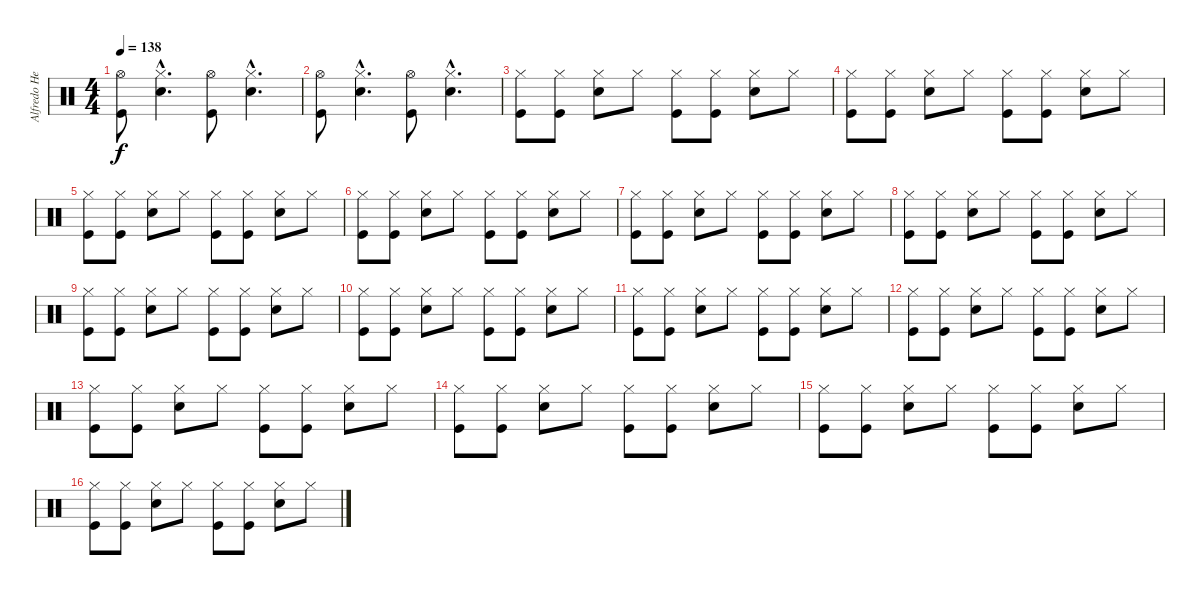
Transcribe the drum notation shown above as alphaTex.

\track ("Alfredo Hernandez" "Alfredo He") {instrument percussion}
\staff {score}
\articulation defaults
\ts (4 4)
\tempo 138
\clef neutral
\ks c
("Kick (hit)" "Hi-Hat (open)").8{dy f} ("Snare (hit) 2"{hac} "Hi-Hat (closed)"{hac}).4{d} ("Kick (hit)" "Hi-Hat (open)").8 ("Snare (hit) 2"{hac} "Hi-Hat (closed)"{hac}).4{d} |
("Kick (hit)" "Hi-Hat (open)").8 ("Snare (hit) 2"{hac} "Hi-Hat (closed)"{hac}).4{d} ("Kick (hit)" "Hi-Hat (open)").8 ("Snare (hit) 2"{hac} "Hi-Hat (closed)"{hac}).4{d} |
("Kick (hit)" "Hi-Hat (closed)").8 ("Kick (hit)" "Hi-Hat (closed)").8 ("Snare (hit) 2" "Hi-Hat (closed)").8 "Hi-Hat (closed)".8 ("Kick (hit)" "Hi-Hat (closed)").8 ("Kick (hit)" "Hi-Hat (closed)").8 ("Snare (hit) 2" "Hi-Hat (closed)").8 "Hi-Hat (closed)".8 |
("Kick (hit)" "Hi-Hat (closed)").8 ("Kick (hit)" "Hi-Hat (closed)").8 ("Snare (hit) 2" "Hi-Hat (closed)").8 "Hi-Hat (closed)".8 ("Kick (hit)" "Hi-Hat (closed)").8 ("Kick (hit)" "Hi-Hat (closed)").8 ("Snare (hit) 2" "Hi-Hat (closed)").8 "Hi-Hat (closed)".8 |
("Kick (hit)" "Hi-Hat (closed)").8 ("Kick (hit)" "Hi-Hat (closed)").8 ("Snare (hit) 2" "Hi-Hat (closed)").8 "Hi-Hat (closed)".8 ("Kick (hit)" "Hi-Hat (closed)").8 ("Kick (hit)" "Hi-Hat (closed)").8 ("Snare (hit) 2" "Hi-Hat (closed)").8 "Hi-Hat (closed)".8 |
("Kick (hit)" "Hi-Hat (closed)").8 ("Kick (hit)" "Hi-Hat (closed)").8 ("Snare (hit) 2" "Hi-Hat (closed)").8 "Hi-Hat (closed)".8 ("Kick (hit)" "Hi-Hat (closed)").8 ("Kick (hit)" "Hi-Hat (closed)").8 ("Snare (hit) 2" "Hi-Hat (closed)").8 "Hi-Hat (closed)".8 |
("Kick (hit)" "Hi-Hat (closed)").8 ("Kick (hit)" "Hi-Hat (closed)").8 ("Snare (hit) 2" "Hi-Hat (closed)").8 "Hi-Hat (closed)".8 ("Kick (hit)" "Hi-Hat (closed)").8 ("Kick (hit)" "Hi-Hat (closed)").8 ("Snare (hit) 2" "Hi-Hat (closed)").8 "Hi-Hat (closed)".8 |
("Kick (hit)" "Hi-Hat (closed)").8 ("Kick (hit)" "Hi-Hat (closed)").8 ("Snare (hit) 2" "Hi-Hat (closed)").8 "Hi-Hat (closed)".8 ("Kick (hit)" "Hi-Hat (closed)").8 ("Kick (hit)" "Hi-Hat (closed)").8 ("Snare (hit) 2" "Hi-Hat (closed)").8 "Hi-Hat (closed)".8 |
("Kick (hit)" "Hi-Hat (closed)").8 ("Kick (hit)" "Hi-Hat (closed)").8 ("Snare (hit) 2" "Hi-Hat (closed)").8 "Hi-Hat (closed)".8 ("Kick (hit)" "Hi-Hat (closed)").8 ("Kick (hit)" "Hi-Hat (closed)").8 ("Snare (hit) 2" "Hi-Hat (closed)").8 "Hi-Hat (closed)".8 |
("Kick (hit)" "Hi-Hat (closed)").8 ("Kick (hit)" "Hi-Hat (closed)").8 ("Snare (hit) 2" "Hi-Hat (closed)").8 "Hi-Hat (closed)".8 ("Kick (hit)" "Hi-Hat (closed)").8 ("Kick (hit)" "Hi-Hat (closed)").8 ("Snare (hit) 2" "Hi-Hat (closed)").8 "Hi-Hat (closed)".8 |
("Kick (hit)" "Hi-Hat (closed)").8 ("Kick (hit)" "Hi-Hat (closed)").8 ("Snare (hit) 2" "Hi-Hat (closed)").8 "Hi-Hat (closed)".8 ("Kick (hit)" "Hi-Hat (closed)").8 ("Kick (hit)" "Hi-Hat (closed)").8 ("Snare (hit) 2" "Hi-Hat (closed)").8 "Hi-Hat (closed)".8 |
("Kick (hit)" "Hi-Hat (closed)").8 ("Kick (hit)" "Hi-Hat (closed)").8 ("Snare (hit) 2" "Hi-Hat (closed)").8 "Hi-Hat (closed)".8 ("Kick (hit)" "Hi-Hat (closed)").8 ("Kick (hit)" "Hi-Hat (closed)").8 ("Snare (hit) 2" "Hi-Hat (closed)").8 "Hi-Hat (closed)".8 |
("Kick (hit)" "Hi-Hat (closed)").8 ("Kick (hit)" "Hi-Hat (closed)").8 ("Snare (hit) 2" "Hi-Hat (closed)").8 "Hi-Hat (closed)".8 ("Kick (hit)" "Hi-Hat (closed)").8 ("Kick (hit)" "Hi-Hat (closed)").8 ("Snare (hit) 2" "Hi-Hat (closed)").8 "Hi-Hat (closed)".8 |
("Kick (hit)" "Hi-Hat (closed)").8 ("Kick (hit)" "Hi-Hat (closed)").8 ("Snare (hit) 2" "Hi-Hat (closed)").8 "Hi-Hat (closed)".8 ("Kick (hit)" "Hi-Hat (closed)").8 ("Kick (hit)" "Hi-Hat (closed)").8 ("Snare (hit) 2" "Hi-Hat (closed)").8 "Hi-Hat (closed)".8 |
("Kick (hit)" "Hi-Hat (closed)").8 ("Kick (hit)" "Hi-Hat (closed)").8 ("Snare (hit) 2" "Hi-Hat (closed)").8 "Hi-Hat (closed)".8 ("Kick (hit)" "Hi-Hat (closed)").8 ("Kick (hit)" "Hi-Hat (closed)").8 ("Snare (hit) 2" "Hi-Hat (closed)").8 "Hi-Hat (closed)".8 |
("Kick (hit)" "Hi-Hat (closed)").8 ("Kick (hit)" "Hi-Hat (closed)").8 ("Snare (hit) 2" "Hi-Hat (closed)").8 "Hi-Hat (closed)".8 ("Kick (hit)" "Hi-Hat (closed)").8 ("Kick (hit)" "Hi-Hat (closed)").8 ("Snare (hit) 2" "Hi-Hat (closed)").8 "Hi-Hat (closed)".8
